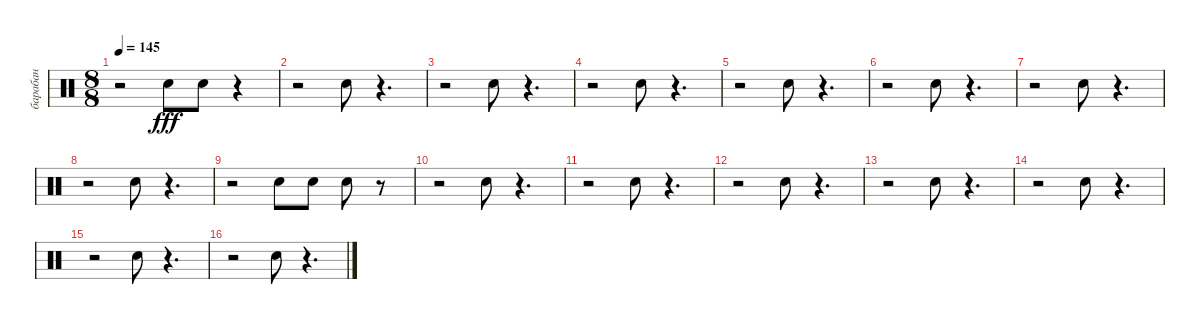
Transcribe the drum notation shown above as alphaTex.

\track ("барабан" "барабан") {instrument percussion}
\staff {score}
\articulation defaults
\ts (8 8)
\tempo 145
\clef neutral
\ks c
r.2{dy fff} "Snare (hit) 2".8 "Snare (hit) 2".8 r.4 |
r.2 "Snare (hit) 2".8 r.4{d} |
r.2 "Snare (hit) 2".8 r.4{d} |
r.2 "Snare (hit) 2".8 r.4{d} |
r.2 "Snare (hit) 2".8 r.4{d} |
r.2 "Snare (hit) 2".8 r.4{d} |
r.2 "Snare (hit) 2".8 r.4{d} |
r.2 "Snare (hit) 2".8 r.4{d} |
r.2 "Snare (hit) 2".8 "Snare (hit) 2".8 "Snare (hit) 2".8 r.8 |
r.2 "Snare (hit) 2".8 r.4{d} |
r.2 "Snare (hit) 2".8 r.4{d} |
r.2 "Snare (hit) 2".8 r.4{d} |
r.2 "Snare (hit) 2".8 r.4{d} |
r.2 "Snare (hit) 2".8 r.4{d} |
r.2 "Snare (hit) 2".8 r.4{d} |
r.2 "Snare (hit) 2".8 r.4{d}
